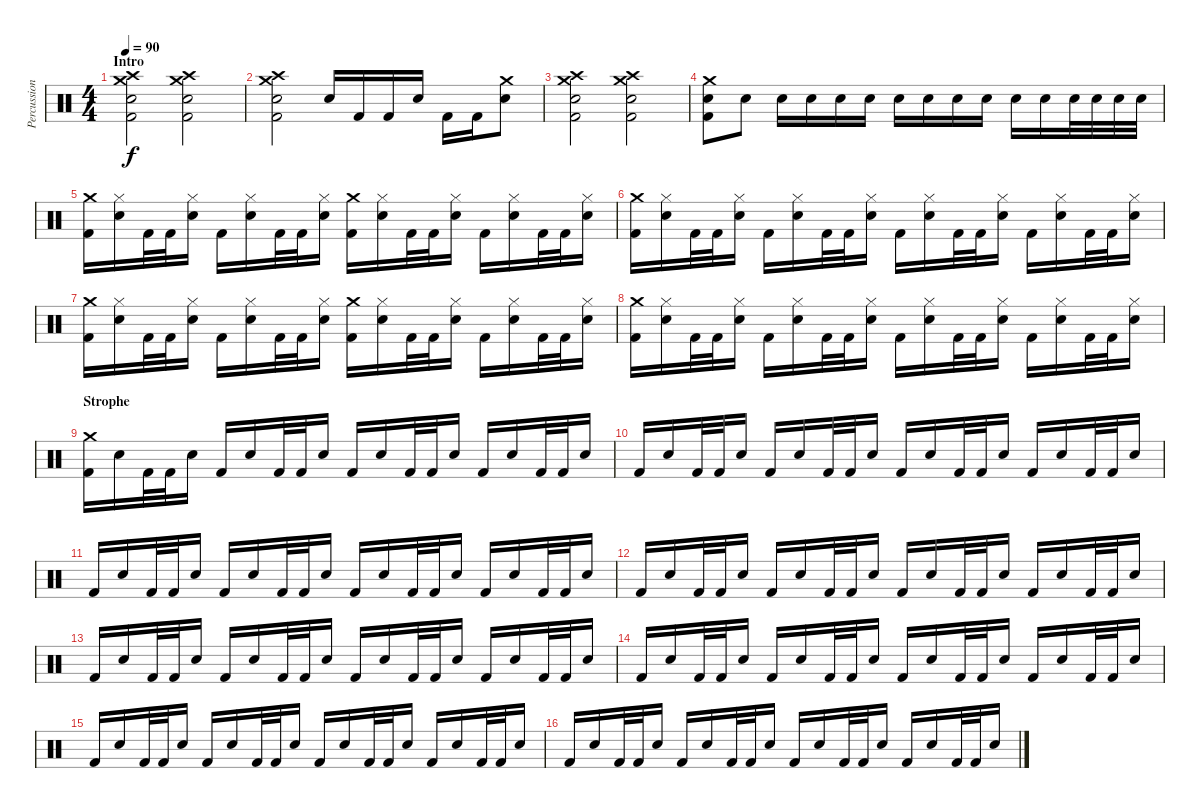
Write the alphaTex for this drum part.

\track ("Percussion" "Percussion") {instrument percussion}
\staff {score}
\articulation defaults
\ts (4 4)
\section ("" "Intro")
\tempo 90
\clef neutral
\ks c
("Crash medium (hit)" "Crash high (hit)" "Snare (hit) 2" "Kick (hit) 2").2{dy f} ("Crash medium (hit)" "Crash high (hit)" "Snare (hit) 2" "Kick (hit) 2").2 |
("Crash medium (hit)" "Crash high (hit)" "Snare (hit) 2" "Kick (hit) 2").2 "Snare (hit) 2".16 "Kick (hit) 2".16 "Kick (hit) 2".16 "Snare (hit) 2".16 "Kick (hit) 2".16 "Kick (hit) 2".16 ("Crash medium (hit)" "Snare (hit) 2").8 |
("Crash medium (hit)" "Crash high (hit)" "Snare (hit) 2" "Kick (hit) 2").2 ("Crash medium (hit)" "Crash high (hit)" "Snare (hit) 2" "Kick (hit) 2").2 |
("Crash medium (hit)" "Snare (hit) 2" "Kick (hit) 2").8 "Snare (hit) 2".8 "Snare (hit) 2".16 "Snare (hit) 2".16 "Snare (hit) 2".16 "Snare (hit) 2".16 "Snare (hit) 2".16 "Snare (hit) 2".16 "Snare (hit) 2".16 "Snare (hit) 2".16 "Snare (hit) 2".16 "Snare (hit) 2".16 "Snare (hit) 2".32 "Snare (hit) 2".32 "Snare (hit) 2".32 "Snare (hit) 2".32 |
("Crash medium (hit)" "Kick (hit) 2").16 ("Hi-Hat (closed)" "Snare (hit) 2").16 "Kick (hit) 2".32 "Kick (hit) 2".32 ("Hi-Hat (closed)" "Snare (hit) 2").16 "Kick (hit) 2".16 ("Hi-Hat (closed)" "Snare (hit) 2").16 "Kick (hit) 2".32 "Kick (hit) 2".32 ("Hi-Hat (closed)" "Snare (hit) 2").16 ("Crash medium (hit)" "Kick (hit) 2").16 ("Hi-Hat (closed)" "Snare (hit) 2").16 "Kick (hit) 2".32 "Kick (hit) 2".32 ("Hi-Hat (closed)" "Snare (hit) 2").16 "Kick (hit) 2".16 ("Hi-Hat (closed)" "Snare (hit) 2").16 "Kick (hit) 2".32 "Kick (hit) 2".32 ("Hi-Hat (closed)" "Snare (hit) 2").16 |
("Crash medium (hit)" "Kick (hit) 2").16 ("Hi-Hat (closed)" "Snare (hit) 2").16 "Kick (hit) 2".32 "Kick (hit) 2".32 ("Hi-Hat (closed)" "Snare (hit) 2").16 "Kick (hit) 2".16 ("Hi-Hat (closed)" "Snare (hit) 2").16 "Kick (hit) 2".32 "Kick (hit) 2".32 ("Hi-Hat (closed)" "Snare (hit) 2").16 "Kick (hit) 2".16 ("Hi-Hat (closed)" "Snare (hit) 2").16 "Kick (hit) 2".32 "Kick (hit) 2".32 ("Hi-Hat (closed)" "Snare (hit) 2").16 "Kick (hit) 2".16 ("Hi-Hat (closed)" "Snare (hit) 2").16 "Kick (hit) 2".32 "Kick (hit) 2".32 ("Hi-Hat (closed)" "Snare (hit) 2").16 |
("Crash medium (hit)" "Kick (hit) 2").16 ("Hi-Hat (closed)" "Snare (hit) 2").16 "Kick (hit) 2".32 "Kick (hit) 2".32 ("Hi-Hat (closed)" "Snare (hit) 2").16 "Kick (hit) 2".16 ("Hi-Hat (closed)" "Snare (hit) 2").16 "Kick (hit) 2".32 "Kick (hit) 2".32 ("Hi-Hat (closed)" "Snare (hit) 2").16 ("Crash medium (hit)" "Kick (hit) 2").16 ("Hi-Hat (closed)" "Snare (hit) 2").16 "Kick (hit) 2".32 "Kick (hit) 2".32 ("Hi-Hat (closed)" "Snare (hit) 2").16 "Kick (hit) 2".16 ("Hi-Hat (closed)" "Snare (hit) 2").16 "Kick (hit) 2".32 "Kick (hit) 2".32 ("Hi-Hat (closed)" "Snare (hit) 2").16 |
("Crash medium (hit)" "Kick (hit) 2").16 ("Hi-Hat (closed)" "Snare (hit) 2").16 "Kick (hit) 2".32 "Kick (hit) 2".32 ("Hi-Hat (closed)" "Snare (hit) 2").16 "Kick (hit) 2".16 ("Hi-Hat (closed)" "Snare (hit) 2").16 "Kick (hit) 2".32 "Kick (hit) 2".32 ("Hi-Hat (closed)" "Snare (hit) 2").16 "Kick (hit) 2".16 ("Hi-Hat (closed)" "Snare (hit) 2").16 "Kick (hit) 2".32 "Kick (hit) 2".32 ("Hi-Hat (closed)" "Snare (hit) 2").16 "Kick (hit) 2".16 ("Hi-Hat (closed)" "Snare (hit) 2").16 "Kick (hit) 2".32 "Kick (hit) 2".32 ("Hi-Hat (closed)" "Snare (hit) 2").16 |
\section ("" "Strophe")
("Crash medium (hit)" "Kick (hit) 2").16 "Snare (hit) 2".16 "Kick (hit) 2".32 "Kick (hit) 2".32 "Snare (hit) 2".16 "Kick (hit) 2".16 "Snare (hit) 2".16 "Kick (hit) 2".32 "Kick (hit) 2".32 "Snare (hit) 2".16 "Kick (hit) 2".16 "Snare (hit) 2".16 "Kick (hit) 2".32 "Kick (hit) 2".32 "Snare (hit) 2".16 "Kick (hit) 2".16 "Snare (hit) 2".16 "Kick (hit) 2".32 "Kick (hit) 2".32 "Snare (hit) 2".16 |
"Kick (hit) 2".16 "Snare (hit) 2".16 "Kick (hit) 2".32 "Kick (hit) 2".32 "Snare (hit) 2".16 "Kick (hit) 2".16 "Snare (hit) 2".16 "Kick (hit) 2".32 "Kick (hit) 2".32 "Snare (hit) 2".16 "Kick (hit) 2".16 "Snare (hit) 2".16 "Kick (hit) 2".32 "Kick (hit) 2".32 "Snare (hit) 2".16 "Kick (hit) 2".16 "Snare (hit) 2".16 "Kick (hit) 2".32 "Kick (hit) 2".32 "Snare (hit) 2".16 |
"Kick (hit) 2".16 "Snare (hit) 2".16 "Kick (hit) 2".32 "Kick (hit) 2".32 "Snare (hit) 2".16 "Kick (hit) 2".16 "Snare (hit) 2".16 "Kick (hit) 2".32 "Kick (hit) 2".32 "Snare (hit) 2".16 "Kick (hit) 2".16 "Snare (hit) 2".16 "Kick (hit) 2".32 "Kick (hit) 2".32 "Snare (hit) 2".16 "Kick (hit) 2".16 "Snare (hit) 2".16 "Kick (hit) 2".32 "Kick (hit) 2".32 "Snare (hit) 2".16 |
"Kick (hit) 2".16 "Snare (hit) 2".16 "Kick (hit) 2".32 "Kick (hit) 2".32 "Snare (hit) 2".16 "Kick (hit) 2".16 "Snare (hit) 2".16 "Kick (hit) 2".32 "Kick (hit) 2".32 "Snare (hit) 2".16 "Kick (hit) 2".16 "Snare (hit) 2".16 "Kick (hit) 2".32 "Kick (hit) 2".32 "Snare (hit) 2".16 "Kick (hit) 2".16 "Snare (hit) 2".16 "Kick (hit) 2".32 "Kick (hit) 2".32 "Snare (hit) 2".16 |
"Kick (hit) 2".16 "Snare (hit) 2".16 "Kick (hit) 2".32 "Kick (hit) 2".32 "Snare (hit) 2".16 "Kick (hit) 2".16 "Snare (hit) 2".16 "Kick (hit) 2".32 "Kick (hit) 2".32 "Snare (hit) 2".16 "Kick (hit) 2".16 "Snare (hit) 2".16 "Kick (hit) 2".32 "Kick (hit) 2".32 "Snare (hit) 2".16 "Kick (hit) 2".16 "Snare (hit) 2".16 "Kick (hit) 2".32 "Kick (hit) 2".32 "Snare (hit) 2".16 |
"Kick (hit) 2".16 "Snare (hit) 2".16 "Kick (hit) 2".32 "Kick (hit) 2".32 "Snare (hit) 2".16 "Kick (hit) 2".16 "Snare (hit) 2".16 "Kick (hit) 2".32 "Kick (hit) 2".32 "Snare (hit) 2".16 "Kick (hit) 2".16 "Snare (hit) 2".16 "Kick (hit) 2".32 "Kick (hit) 2".32 "Snare (hit) 2".16 "Kick (hit) 2".16 "Snare (hit) 2".16 "Kick (hit) 2".32 "Kick (hit) 2".32 "Snare (hit) 2".16 |
"Kick (hit) 2".16 "Snare (hit) 2".16 "Kick (hit) 2".32 "Kick (hit) 2".32 "Snare (hit) 2".16 "Kick (hit) 2".16 "Snare (hit) 2".16 "Kick (hit) 2".32 "Kick (hit) 2".32 "Snare (hit) 2".16 "Kick (hit) 2".16 "Snare (hit) 2".16 "Kick (hit) 2".32 "Kick (hit) 2".32 "Snare (hit) 2".16 "Kick (hit) 2".16 "Snare (hit) 2".16 "Kick (hit) 2".32 "Kick (hit) 2".32 "Snare (hit) 2".16 |
"Kick (hit) 2".16 "Snare (hit) 2".16 "Kick (hit) 2".32 "Kick (hit) 2".32 "Snare (hit) 2".16 "Kick (hit) 2".16 "Snare (hit) 2".16 "Kick (hit) 2".32 "Kick (hit) 2".32 "Snare (hit) 2".16 "Kick (hit) 2".16 "Snare (hit) 2".16 "Kick (hit) 2".32 "Kick (hit) 2".32 "Snare (hit) 2".16 "Kick (hit) 2".16 "Snare (hit) 2".16 "Kick (hit) 2".32 "Kick (hit) 2".32 "Snare (hit) 2".16
